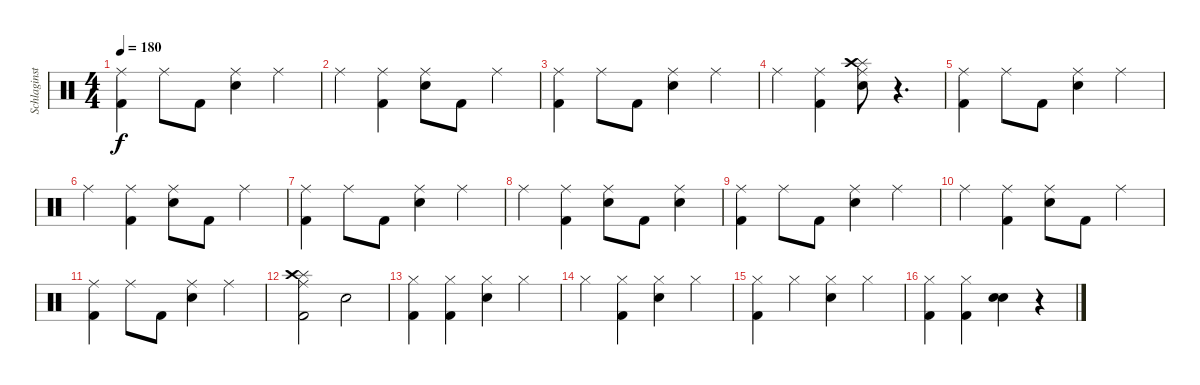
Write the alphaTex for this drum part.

\track ("Schlaginstrumente - Auswahl" "Schlaginst") {instrument percussion}
\staff {score}
\articulation defaults
\ts (4 4)
\tempo 180
\clef neutral
\ks c
("Ride (middle)" "Kick (hit) 2").4{dy f} "Ride (middle)".8 "Kick (hit) 2".8 ("Ride (middle)" "Snare (hit) 2").4 "Ride (middle)".4 |
"Ride (middle)".4 ("Ride (middle)" "Kick (hit) 2").4 ("Ride (middle)" "Snare (hit) 2").8 "Kick (hit) 2".8 "Ride (middle)".4 |
("Ride (middle)" "Kick (hit) 2").4 "Ride (middle)".8 "Kick (hit) 2".8 ("Ride (middle)" "Snare (hit) 2").4 "Ride (middle)".4 |
"Ride (middle)".4 ("Ride (middle)" "Kick (hit) 2").4 ("Ride (middle)" "Splash (hit)" "Snare (hit) 2" "Crash high (hit)").8 r.4{d} |
("Ride (middle)" "Kick (hit) 2").4 "Ride (middle)".8 "Kick (hit) 2".8 ("Ride (middle)" "Snare (hit) 2").4 "Ride (middle)".4 |
"Ride (middle)".4 ("Ride (middle)" "Kick (hit) 2").4 ("Ride (middle)" "Snare (hit) 2").8 "Kick (hit) 2".8 "Ride (middle)".4 |
("Ride (middle)" "Kick (hit) 2").4 "Ride (middle)".8 "Kick (hit) 2".8 ("Ride (middle)" "Snare (hit) 2").4 "Ride (middle)".4 |
"Ride (middle)".4 ("Ride (middle)" "Kick (hit) 2").4 ("Ride (middle)" "Snare (hit) 2").8 "Kick (hit) 2".8 ("Ride (middle)" "Snare (hit) 2").4 |
("Ride (middle)" "Kick (hit) 2").4 "Ride (middle)".8 "Kick (hit) 2".8 ("Ride (middle)" "Snare (hit) 2").4 "Ride (middle)".4 |
"Ride (middle)".4 ("Ride (middle)" "Kick (hit) 2").4 ("Ride (middle)" "Snare (hit) 2").8 "Kick (hit) 2".8 "Ride (middle)".4 |
("Ride (middle)" "Kick (hit) 2").4 "Ride (middle)".8 "Kick (hit) 2".8 ("Ride (middle)" "Snare (hit) 2").4 "Ride (middle)".4 |
("Ride (middle)" "Splash (hit)" "Crash high (hit)" "Kick (hit) 2").2 "Snare (hit) 2".2 |
("Hi-Hat (closed)" "Kick (hit) 2").4 ("Hi-Hat (closed)" "Kick (hit) 2").4 ("Hi-Hat (closed)" "Snare (hit) 2").4 "Hi-Hat (closed)".4 |
"Hi-Hat (closed)".4 ("Hi-Hat (closed)" "Kick (hit) 2").4 ("Hi-Hat (closed)" "Snare (hit) 2").4 "Hi-Hat (closed)".4 |
("Hi-Hat (closed)" "Kick (hit) 2").4 "Hi-Hat (closed)".4 ("Hi-Hat (closed)" "Snare (hit) 2").4 "Hi-Hat (closed)".4 |
("Hi-Hat (closed)" "Kick (hit) 2").4 ("Hi-Hat (closed)" "Kick (hit) 2").4 ("Snare (hit) 2" "Snare (hit) 2").4 r.4
